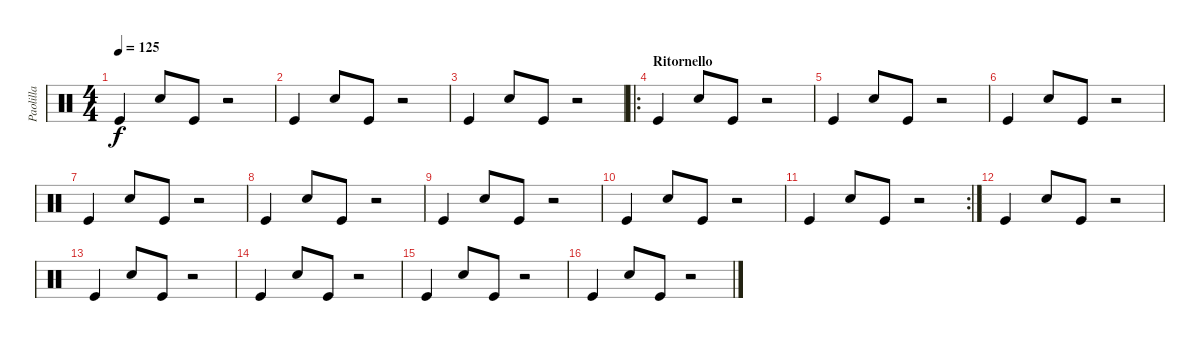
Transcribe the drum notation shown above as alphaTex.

\track ("Paolilla" "Paolilla") {instrument percussion}
\staff {score}
\articulation defaults
\ts (4 4)
\tempo 125
\clef neutral
\ks c "Kick (hit)".4{dy f} "Snare (hit) 2".8 "Kick (hit)".8
r.2 |
"Kick (hit)".4 "Snare (hit) 2".8 "Kick (hit)".8 r.2 |
"Kick (hit)".4 "Snare (hit) 2".8 "Kick (hit)".8 r.2 |
\ro
\section ("" "Ritornello")
"Kick (hit)".4 "Snare (hit) 2".8 "Kick (hit)".8 r.2 |
"Kick (hit)".4 "Snare (hit) 2".8 "Kick (hit)".8 r.2 |
"Kick (hit)".4 "Snare (hit) 2".8 "Kick (hit)".8 r.2 |
"Kick (hit)".4 "Snare (hit) 2".8 "Kick (hit)".8 r.2 |
"Kick (hit)".4 "Snare (hit) 2".8 "Kick (hit)".8 r.2 |
"Kick (hit)".4 "Snare (hit) 2".8 "Kick (hit)".8 r.2 |
"Kick (hit)".4 "Snare (hit) 2".8 "Kick (hit)".8 r.2 |
\rc 2 "Kick (hit)".4 "Snare (hit) 2".8 "Kick (hit)".8
r.2 |
"Kick (hit)".4 "Snare (hit) 2".8 "Kick (hit)".8 r.2 |
"Kick (hit)".4 "Snare (hit) 2".8 "Kick (hit)".8 r.2 |
"Kick (hit)".4 "Snare (hit) 2".8 "Kick (hit)".8 r.2 |
"Kick (hit)".4 "Snare (hit) 2".8 "Kick (hit)".8 r.2 |
"Kick (hit)".4 "Snare (hit) 2".8 "Kick (hit)".8 r.2
